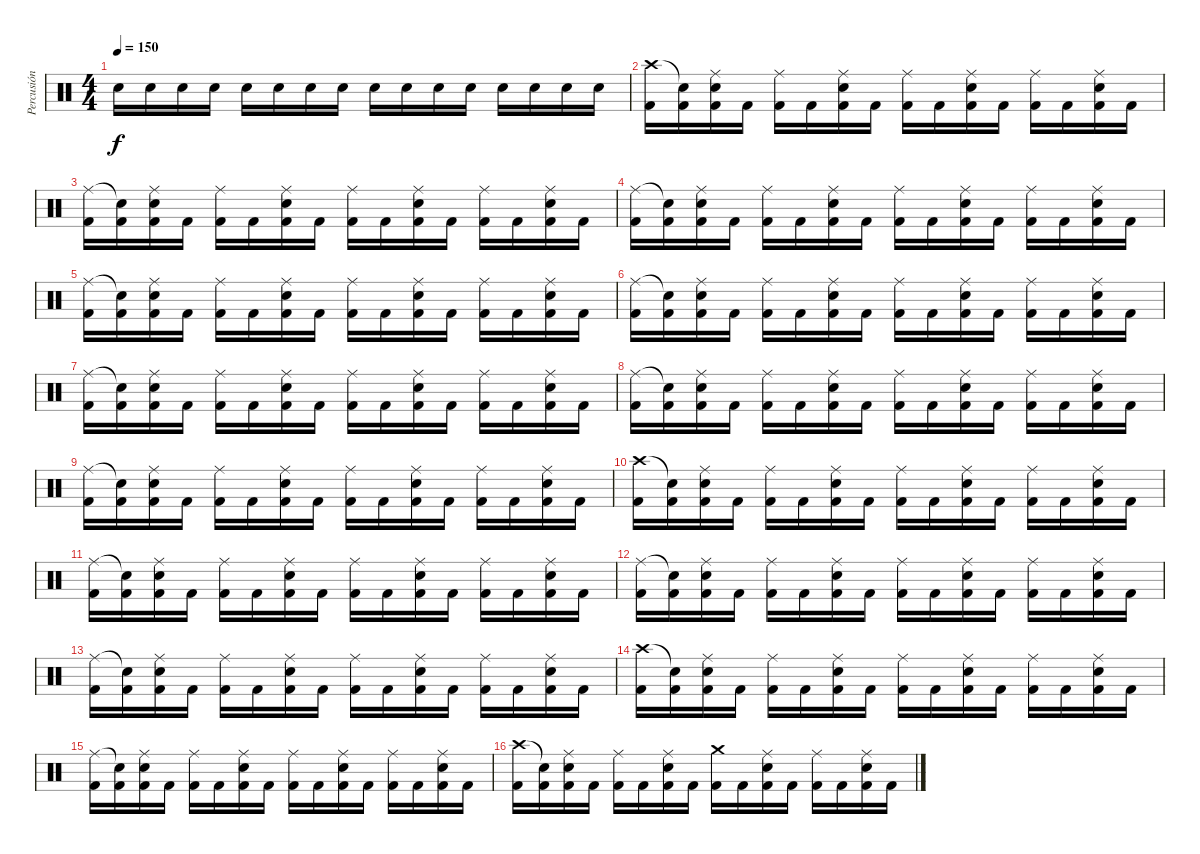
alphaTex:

\track ("Percusión" "Percusión") {instrument percussion}
\staff {score}
\articulation defaults
\ts (4 4)
\tempo 150
\clef neutral
\ks c "Electric Snare (hit)".16{dy f} "Electric Snare (hit)".16 "Electric Snare (hit)".16 "Electric Snare (hit)".16 "Electric Snare (hit)".16 "Electric Snare (hit)".16 "Electric Snare (hit)".16 "Electric Snare (hit)".16 "Electric Snare (hit)".16 "Electric Snare (hit)".16 "Electric Snare (hit)".16 "Electric Snare (hit)".16 "Electric Snare (hit)".16 "Electric Snare (hit)".16 "Electric Snare (hit)".16 "Electric Snare (hit)".16
|
("Crash high (hit)" "Kick (hit) 2").16 ("Snare (hit)"{t} "Kick (hit) 2").16 ("Ride (middle)" "Electric Snare (hit)" "Kick (hit) 2").16 "Kick (hit) 2".16 ("Ride (middle)" "Kick (hit) 2").16 "Kick (hit) 2".16 ("Ride (middle)" "Electric Snare (hit)" "Kick (hit) 2").16 "Kick (hit) 2".16 ("Ride (middle)" "Kick (hit) 2").16 "Kick (hit) 2".16 ("Ride (middle)" "Electric Snare (hit)" "Kick (hit) 2").16 "Kick (hit) 2".16 ("Ride (middle)" "Kick (hit) 2").16 "Kick (hit) 2".16 ("Ride (middle)" "Electric Snare (hit)" "Kick (hit) 2").16 "Kick (hit) 2".16 |
("Ride (middle)" "Kick (hit) 2").16 ("Snare (hit)"{t} "Kick (hit) 2").16 ("Ride (middle)" "Electric Snare (hit)" "Kick (hit) 2").16 "Kick (hit) 2".16 ("Ride (middle)" "Kick (hit) 2").16 "Kick (hit) 2".16 ("Ride (middle)" "Electric Snare (hit)" "Kick (hit) 2").16 "Kick (hit) 2".16 ("Ride (middle)" "Kick (hit) 2").16 "Kick (hit) 2".16 ("Ride (middle)" "Electric Snare (hit)" "Kick (hit) 2").16 "Kick (hit) 2".16 ("Ride (middle)" "Kick (hit) 2").16 "Kick (hit) 2".16 ("Ride (middle)" "Electric Snare (hit)" "Kick (hit) 2").16 "Kick (hit) 2".16 |
("Ride (middle)" "Kick (hit) 2").16 ("Snare (hit)"{t} "Kick (hit) 2").16 ("Ride (middle)" "Electric Snare (hit)" "Kick (hit) 2").16 "Kick (hit) 2".16 ("Ride (middle)" "Kick (hit) 2").16 "Kick (hit) 2".16 ("Ride (middle)" "Electric Snare (hit)" "Kick (hit) 2").16 "Kick (hit) 2".16 ("Ride (middle)" "Kick (hit) 2").16 "Kick (hit) 2".16 ("Ride (middle)" "Electric Snare (hit)" "Kick (hit) 2").16 "Kick (hit) 2".16 ("Ride (middle)" "Kick (hit) 2").16 "Kick (hit) 2".16 ("Ride (middle)" "Electric Snare (hit)" "Kick (hit) 2").16 "Kick (hit) 2".16 |
("Ride (middle)" "Kick (hit) 2").16 ("Snare (hit)"{t} "Kick (hit) 2").16 ("Ride (middle)" "Electric Snare (hit)" "Kick (hit) 2").16 "Kick (hit) 2".16 ("Ride (middle)" "Kick (hit) 2").16 "Kick (hit) 2".16 ("Ride (middle)" "Electric Snare (hit)" "Kick (hit) 2").16 "Kick (hit) 2".16 ("Ride (middle)" "Kick (hit) 2").16 "Kick (hit) 2".16 ("Ride (middle)" "Electric Snare (hit)" "Kick (hit) 2").16 "Kick (hit) 2".16 ("Ride (middle)" "Kick (hit) 2").16 "Kick (hit) 2".16 ("Ride (middle)" "Electric Snare (hit)" "Kick (hit) 2").16 "Kick (hit) 2".16 |
("Ride (middle)" "Kick (hit) 2").16 ("Snare (hit)"{t} "Kick (hit) 2").16 ("Ride (middle)" "Electric Snare (hit)" "Kick (hit) 2").16 "Kick (hit) 2".16 ("Ride (middle)" "Kick (hit) 2").16 "Kick (hit) 2".16 ("Ride (middle)" "Electric Snare (hit)" "Kick (hit) 2").16 "Kick (hit) 2".16 ("Ride (middle)" "Kick (hit) 2").16 "Kick (hit) 2".16 ("Ride (middle)" "Electric Snare (hit)" "Kick (hit) 2").16 "Kick (hit) 2".16 ("Ride (middle)" "Kick (hit) 2").16 "Kick (hit) 2".16 ("Ride (middle)" "Electric Snare (hit)" "Kick (hit) 2").16 "Kick (hit) 2".16 |
("Ride (middle)" "Kick (hit) 2").16 ("Snare (hit)"{t} "Kick (hit) 2").16 ("Ride (middle)" "Electric Snare (hit)" "Kick (hit) 2").16 "Kick (hit) 2".16 ("Ride (middle)" "Kick (hit) 2").16 "Kick (hit) 2".16 ("Ride (middle)" "Electric Snare (hit)" "Kick (hit) 2").16 "Kick (hit) 2".16 ("Ride (middle)" "Kick (hit) 2").16 "Kick (hit) 2".16 ("Ride (middle)" "Electric Snare (hit)" "Kick (hit) 2").16 "Kick (hit) 2".16 ("Ride (middle)" "Kick (hit) 2").16 "Kick (hit) 2".16 ("Ride (middle)" "Electric Snare (hit)" "Kick (hit) 2").16 "Kick (hit) 2".16 |
("Ride (middle)" "Kick (hit) 2").16 ("Snare (hit)"{t} "Kick (hit) 2").16 ("Ride (middle)" "Electric Snare (hit)" "Kick (hit) 2").16 "Kick (hit) 2".16 ("Ride (middle)" "Kick (hit) 2").16 "Kick (hit) 2".16 ("Ride (middle)" "Electric Snare (hit)" "Kick (hit) 2").16 "Kick (hit) 2".16 ("Ride (middle)" "Kick (hit) 2").16 "Kick (hit) 2".16 ("Ride (middle)" "Electric Snare (hit)" "Kick (hit) 2").16 "Kick (hit) 2".16 ("Ride (middle)" "Kick (hit) 2").16 "Kick (hit) 2".16 ("Ride (middle)" "Electric Snare (hit)" "Kick (hit) 2").16 "Kick (hit) 2".16 |
("Ride (middle)" "Kick (hit) 2").16 ("Snare (hit)"{t} "Kick (hit) 2").16 ("Ride (middle)" "Electric Snare (hit)" "Kick (hit) 2").16 "Kick (hit) 2".16 ("Ride (middle)" "Kick (hit) 2").16 "Kick (hit) 2".16 ("Ride (middle)" "Electric Snare (hit)" "Kick (hit) 2").16 "Kick (hit) 2".16 ("Ride (middle)" "Kick (hit) 2").16 "Kick (hit) 2".16 ("Ride (middle)" "Electric Snare (hit)" "Kick (hit) 2").16 "Kick (hit) 2".16 ("Ride (middle)" "Kick (hit) 2").16 "Kick (hit) 2".16 ("Ride (middle)" "Electric Snare (hit)" "Kick (hit) 2").16 "Kick (hit) 2".16 |
("Crash high (hit)" "Kick (hit) 2").16 ("Snare (hit)"{t} "Kick (hit) 2").16 ("Ride (middle)" "Electric Snare (hit)" "Kick (hit) 2").16 "Kick (hit) 2".16 ("Ride (middle)" "Kick (hit) 2").16 "Kick (hit) 2".16 ("Ride (middle)" "Electric Snare (hit)" "Kick (hit) 2").16 "Kick (hit) 2".16 ("Ride (middle)" "Kick (hit) 2").16 "Kick (hit) 2".16 ("Ride (middle)" "Electric Snare (hit)" "Kick (hit) 2").16 "Kick (hit) 2".16 ("Ride (middle)" "Kick (hit) 2").16 "Kick (hit) 2".16 ("Ride (middle)" "Electric Snare (hit)" "Kick (hit) 2").16 "Kick (hit) 2".16 |
("Ride (middle)" "Kick (hit) 2").16 ("Snare (hit)"{t} "Kick (hit) 2").16 ("Ride (middle)" "Electric Snare (hit)" "Kick (hit) 2").16 "Kick (hit) 2".16 ("Ride (middle)" "Kick (hit) 2").16 "Kick (hit) 2".16 ("Ride (middle)" "Electric Snare (hit)" "Kick (hit) 2").16 "Kick (hit) 2".16 ("Ride (middle)" "Kick (hit) 2").16 "Kick (hit) 2".16 ("Ride (middle)" "Electric Snare (hit)" "Kick (hit) 2").16 "Kick (hit) 2".16 ("Ride (middle)" "Kick (hit) 2").16 "Kick (hit) 2".16 ("Ride (middle)" "Electric Snare (hit)" "Kick (hit) 2").16 "Kick (hit) 2".16 |
("Ride (middle)" "Kick (hit) 2").16 ("Snare (hit)"{t} "Kick (hit) 2").16 ("Ride (middle)" "Electric Snare (hit)" "Kick (hit) 2").16 "Kick (hit) 2".16 ("Ride (middle)" "Kick (hit) 2").16 "Kick (hit) 2".16 ("Ride (middle)" "Electric Snare (hit)" "Kick (hit) 2").16 "Kick (hit) 2".16 ("Ride (middle)" "Kick (hit) 2").16 "Kick (hit) 2".16 ("Ride (middle)" "Electric Snare (hit)" "Kick (hit) 2").16 "Kick (hit) 2".16 ("Ride (middle)" "Kick (hit) 2").16 "Kick (hit) 2".16 ("Ride (middle)" "Electric Snare (hit)" "Kick (hit) 2").16 "Kick (hit) 2".16 |
("Ride (middle)" "Kick (hit) 2").16 ("Snare (hit)"{t} "Kick (hit) 2").16 ("Ride (middle)" "Electric Snare (hit)" "Kick (hit) 2").16 "Kick (hit) 2".16 ("Ride (middle)" "Kick (hit) 2").16 "Kick (hit) 2".16 ("Ride (middle)" "Electric Snare (hit)" "Kick (hit) 2").16 "Kick (hit) 2".16 ("Ride (middle)" "Kick (hit) 2").16 "Kick (hit) 2".16 ("Ride (middle)" "Electric Snare (hit)" "Kick (hit) 2").16 "Kick (hit) 2".16 ("Ride (middle)" "Kick (hit) 2").16 "Kick (hit) 2".16 ("Ride (middle)" "Electric Snare (hit)" "Kick (hit) 2").16 "Kick (hit) 2".16 |
("Crash high (hit)" "Kick (hit) 2").16 ("Snare (hit)"{t} "Kick (hit) 2").16 ("Ride (middle)" "Electric Snare (hit)" "Kick (hit) 2").16 "Kick (hit) 2".16 ("Ride (middle)" "Kick (hit) 2").16 "Kick (hit) 2".16 ("Ride (middle)" "Electric Snare (hit)" "Kick (hit) 2").16 "Kick (hit) 2".16 ("Ride (middle)" "Kick (hit) 2").16 "Kick (hit) 2".16 ("Ride (middle)" "Electric Snare (hit)" "Kick (hit) 2").16 "Kick (hit) 2".16 ("Ride (middle)" "Kick (hit) 2").16 "Kick (hit) 2".16 ("Ride (middle)" "Electric Snare (hit)" "Kick (hit) 2").16 "Kick (hit) 2".16 |
("Ride (middle)" "Kick (hit) 2").16 ("Snare (hit)"{t} "Kick (hit) 2").16 ("Ride (middle)" "Electric Snare (hit)" "Kick (hit) 2").16 "Kick (hit) 2".16 ("Ride (middle)" "Kick (hit) 2").16 "Kick (hit) 2".16 ("Ride (middle)" "Electric Snare (hit)" "Kick (hit) 2").16 "Kick (hit) 2".16 ("Ride (middle)" "Kick (hit) 2").16 "Kick (hit) 2".16 ("Ride (middle)" "Electric Snare (hit)" "Kick (hit) 2").16 "Kick (hit) 2".16 ("Ride (middle)" "Kick (hit) 2").16 "Kick (hit) 2".16 ("Ride (middle)" "Electric Snare (hit)" "Kick (hit) 2").16 "Kick (hit) 2".16 |
("Crash high (hit)" "Kick (hit) 2").16 ("Snare (hit)"{t} "Kick (hit) 2").16 ("Ride (middle)" "Electric Snare (hit)" "Kick (hit) 2").16 "Kick (hit) 2".16 ("Ride (middle)" "Kick (hit) 2").16 "Kick (hit) 2".16 ("Ride (middle)" "Electric Snare (hit)" "Kick (hit) 2").16 "Kick (hit) 2".16 ("Crash medium (hit)" "Kick (hit) 2").16 "Kick (hit) 2".16 ("Ride (middle)" "Electric Snare (hit)" "Kick (hit) 2").16 "Kick (hit) 2".16 ("Ride (middle)" "Kick (hit) 2").16 "Kick (hit) 2".16 ("Ride (middle)" "Electric Snare (hit)" "Kick (hit) 2").16 "Kick (hit) 2".16
